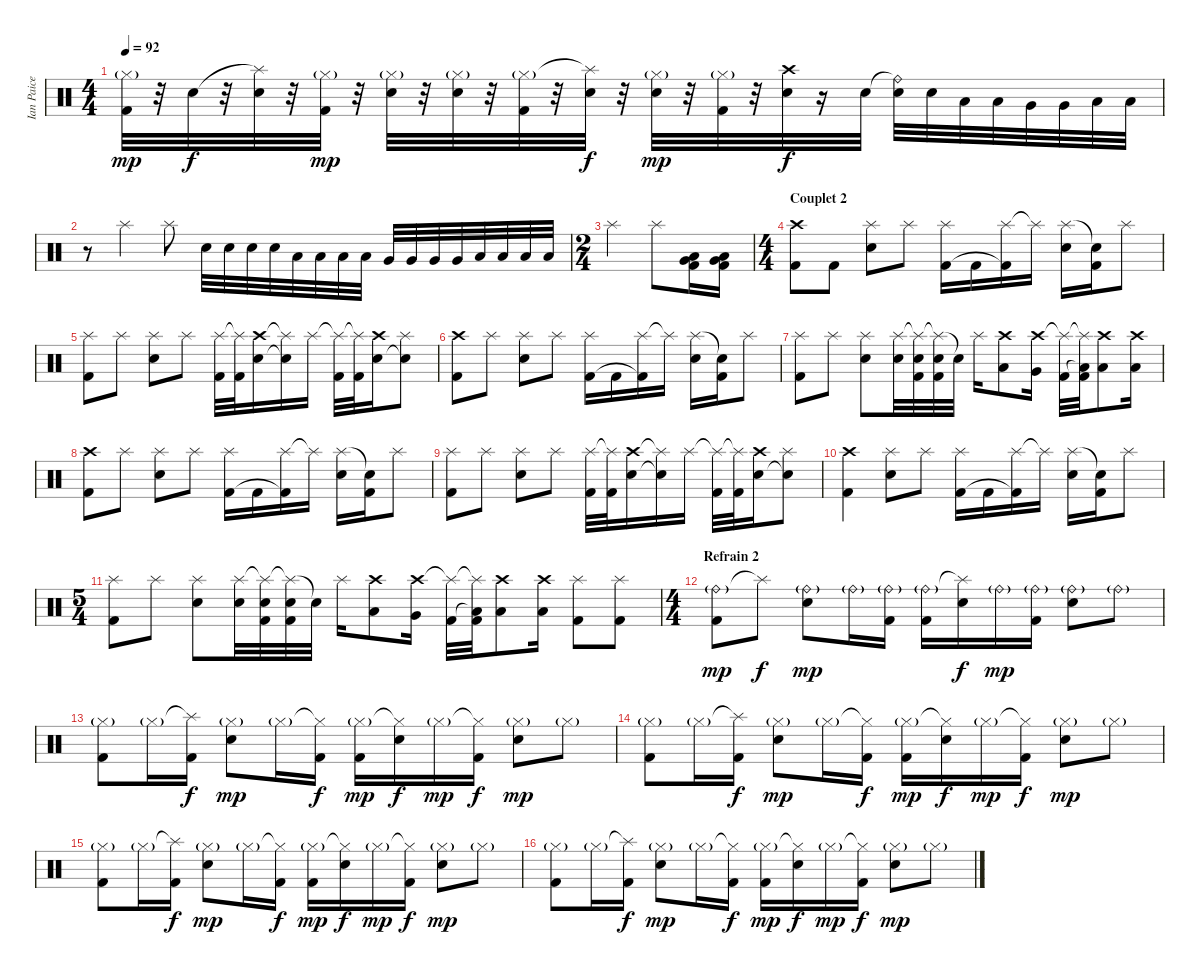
\track ("Ian Paice" "Ian Paice") {instrument percussion}
\staff {score}
\articulation defaults
\ts (4 4)
\tempo 92
\clef neutral
\ks c
("Hi-Hat (closed)"{g} "Kick (hit) 2").32{dy mp} r.32 "Snare (hit) 2".32{dy f} r.32 ("Splash (hit)"{t} "Snare (hit) 2").32 r.32 ("Hi-Hat (closed)"{g} "Kick (hit) 2").32{dy mp} r.32 ("Hi-Hat (closed)"{g} "Snare (hit) 2").32 r.32 ("Hi-Hat (closed)"{g} "Snare (hit) 2").32 r.32 ("Hi-Hat (closed)"{g} "Kick (hit) 2").32 r.32 ("Splash (hit)"{t} "Snare (hit) 2").32{dy f} r.32 ("Hi-Hat (closed)"{g} "Snare (hit) 2").32{dy mp} r.32 ("Hi-Hat (closed)"{g} "Kick (hit) 2").32 r.32 ("Crash high (hit)" "Snare (hit) 2").32{dy f} r.16 "Snare (hit) 2".32 ("Ride (bell)"{t} "Snare (hit) 2").32 "Snare (hit) 2".32 "Low Tom (hit)".32 "Low Tom (hit)".32 "Very Low Tom (hit)".32 "Very Low Tom (hit)".32 "Low Floor Tom (hit)".32 "Low Floor Tom (hit)".32 |
r.8 "Splash (hit)".4 "Splash (hit)".8 "Snare (hit) 2".32 "Snare (hit) 2".32 "Snare (hit) 2".32 "Snare (hit) 2".32 "Low Tom (hit)".32 "Low Tom (hit)".32 "Low Tom (hit)".32 "Low Tom (hit)".32 "Very Low Tom (hit)".32 "Very Low Tom (hit)".32 "Very Low Tom (hit)".32 "Very Low Tom (hit)".32 "Low Floor Tom (hit)".32 "Low Floor Tom (hit)".32 "Low Floor Tom (hit)".32 "Low Floor Tom (hit)".32 |
\ts (2 4)
"Splash (hit)".4 "Splash (hit)".8 ("Very Low Tom (hit)" "Low Tom (hit)" "Kick (hit) 2").16 ("Very Low Tom (hit)" "Low Tom (hit)" "Kick (hit) 2").16 |
\ts (4 4)
\section ("" "Couplet 2")
("Crash high (hit)" "Kick (hit) 2").8 "Kick (hit) 2".8 ("Splash (hit)" "Snare (hit) 2").8 "Splash (hit)".8 ("Splash (hit)" "Kick (hit) 2").16 "Kick (hit) 2".16 ("Splash (hit)" "Kick (hit) 2"{t}).16 "Splash (hit)"{t}.16 ("Splash (hit)" "Snare (hit) 2").16 ("Snare (hit)"{t} "Kick (hit) 2").16 "Splash (hit)".8 |
("Splash (hit)" "Kick (hit) 2").8 "Splash (hit)".8 ("Splash (hit)" "Snare (hit) 2").8 "Splash (hit)".8 ("Splash (hit)" "Kick (hit) 2").32 ("Splash (hit)"{t} "Kick (hit) 2").32 ("Crash high (hit)" "Snare (hit) 2").16 ("Splash (hit)"{t} "Snare (hit)"{t}).16 "Splash (hit)".16 ("Splash (hit)"{t} "Kick (hit) 2").32 ("Splash (hit)"{t} "Kick (hit) 2").32 ("Crash high (hit)" "Snare (hit) 2").16 ("Splash (hit)" "Snare (hit)"{t}).8 |
("Crash high (hit)" "Kick (hit) 2").8 "Splash (hit)".8 ("Splash (hit)" "Snare (hit) 2").8 "Splash (hit)".8 ("Splash (hit)" "Kick (hit) 2").16 "Kick (hit) 2".16 ("Splash (hit)" "Kick (hit) 2"{t}).16 "Splash (hit)"{t}.16 ("Splash (hit)" "Snare (hit) 2").16 ("Snare (hit)"{t} "Kick (hit) 2").16 "Splash (hit)".8 |
("Splash (hit)" "Kick (hit) 2").8 "Splash (hit)".8 ("Splash (hit)" "Snare (hit) 2").8 ("Splash (hit)" "Snare (hit) 2").32 ("Splash (hit)"{t} "Snare (hit) 2" "Kick (hit) 2").32 ("Splash (hit)"{t} "Snare (hit) 2" "Kick (hit) 2").32 "Snare (hit)"{t}.32 "Splash (hit)".16 ("Crash high (hit)" "Low Floor Tom (hit)").8 ("Crash high (hit)" "Very Low Tom (hit)").16 ("Splash (hit)"{t} "Kick (hit) 2").32 ("Splash (hit)"{t} "Low Tom (hit)"{t} "Kick (hit) 2").32 ("Crash high (hit)" "Low Tom (hit)").8 ("Crash high (hit)" "Low Tom (hit)").16 |
("Crash high (hit)" "Kick (hit) 2").8 "Splash (hit)".8 ("Splash (hit)" "Snare (hit) 2").8 "Splash (hit)".8 ("Splash (hit)" "Kick (hit) 2").16 "Kick (hit) 2".16 ("Splash (hit)" "Kick (hit) 2"{t}).16 "Splash (hit)"{t}.16 ("Splash (hit)" "Snare (hit) 2").16 ("Snare (hit)"{t} "Kick (hit) 2").16 "Splash (hit)".8 |
("Splash (hit)" "Kick (hit) 2").8 "Splash (hit)".8 ("Splash (hit)" "Snare (hit) 2").8 "Splash (hit)".8 ("Splash (hit)" "Kick (hit) 2").32 ("Splash (hit)"{t} "Kick (hit) 2").32 ("Crash high (hit)" "Snare (hit) 2").16 ("Splash (hit)"{t} "Snare (hit)"{t}).16 "Splash (hit)".16 ("Splash (hit)"{t} "Kick (hit) 2").32 ("Splash (hit)"{t} "Kick (hit) 2").32 ("Crash high (hit)" "Snare (hit) 2").16 ("Splash (hit)" "Snare (hit)"{t}).8 |
("Crash high (hit)" "Kick (hit) 2").4 ("Splash (hit)" "Snare (hit) 2").8 "Splash (hit)".8 ("Splash (hit)" "Kick (hit) 2").16 "Kick (hit) 2".16 ("Splash (hit)" "Kick (hit) 2"{t}).16 "Splash (hit)"{t}.16 ("Splash (hit)" "Snare (hit) 2").16 ("Snare (hit)"{t} "Kick (hit) 2").16 "Splash (hit)".8 |
\ts (5 4)
("Splash (hit)" "Kick (hit) 2").8 "Splash (hit)".8 ("Splash (hit)" "Snare (hit) 2").8 ("Splash (hit)" "Snare (hit) 2").32 ("Splash (hit)"{t} "Snare (hit) 2" "Kick (hit) 2").32 ("Splash (hit)"{t} "Snare (hit) 2" "Kick (hit) 2").32 "Snare (hit)"{t}.32 "Splash (hit)".16 ("Crash high (hit)" "Low Floor Tom (hit)").8 ("Crash high (hit)" "Very Low Tom (hit)").16 ("Splash (hit)"{t} "Kick (hit) 2").32 ("Splash (hit)"{t} "Low Tom (hit)"{t} "Kick (hit) 2").32 ("Crash high (hit)" "Low Tom (hit)").8 ("Crash high (hit)" "Low Tom (hit)").16 ("Splash (hit)" "Kick (hit) 2").8 ("Splash (hit)" "Kick (hit) 2").8 |
\ts (4 4)
\section ("" "Refrain 2")
("Ride (bell)"{g} "Kick (hit) 2").8{dy mp} "Splash (hit)"{t}.8{dy f} ("Ride (bell)"{g} "Snare (hit) 2").8{dy mp} "Ride (bell)"{g}.16 ("Ride (bell)"{g} "Kick (hit) 2").16 ("Ride (bell)"{g} "Kick (hit) 2").16 ("Splash (hit)"{t} "Snare (hit) 2").16{dy f} "Ride (bell)"{g}.16{dy mp} ("Ride (bell)"{g} "Kick (hit) 2").16 ("Ride (bell)"{g} "Snare (hit) 2").8 "Ride (bell)"{g}.8 |
("Hi-Hat (closed)"{g} "Kick (hit) 2").8 "Hi-Hat (closed)"{g}.16 ("Splash (hit)"{t} "Kick (hit) 2").16{dy f} ("Hi-Hat (closed)"{g} "Snare (hit) 2").8{dy mp} "Hi-Hat (closed)"{g}.16 ("Hi-Hat (closed)"{t} "Kick (hit) 2").16{dy f} ("Hi-Hat (closed)"{g} "Kick (hit) 2").16{dy mp} ("Hi-Hat (closed)"{t} "Snare (hit) 2").16{dy f} "Hi-Hat (closed)"{g}.16{dy mp} ("Hi-Hat (closed)"{t} "Kick (hit) 2").16{dy f} ("Hi-Hat (closed)"{g} "Snare (hit) 2").8{dy mp} "Hi-Hat (closed)"{g}.8 |
("Hi-Hat (closed)"{g} "Kick (hit) 2").8 "Hi-Hat (closed)"{g}.16 ("Splash (hit)"{t} "Kick (hit) 2").16{dy f} ("Hi-Hat (closed)"{g} "Snare (hit) 2").8{dy mp} "Hi-Hat (closed)"{g}.16 ("Hi-Hat (closed)"{t} "Kick (hit) 2").16{dy f} ("Hi-Hat (closed)"{g} "Kick (hit) 2").16{dy mp} ("Hi-Hat (closed)"{t} "Snare (hit) 2").16{dy f} "Hi-Hat (closed)"{g}.16{dy mp} ("Hi-Hat (closed)"{t} "Kick (hit) 2").16{dy f} ("Hi-Hat (closed)"{g} "Snare (hit) 2").8{dy mp} "Hi-Hat (closed)"{g}.8 |
("Hi-Hat (closed)"{g} "Kick (hit) 2").8 "Hi-Hat (closed)"{g}.16 ("Splash (hit)"{t} "Kick (hit) 2").16{dy f} ("Hi-Hat (closed)"{g} "Snare (hit) 2").8{dy mp} "Hi-Hat (closed)"{g}.16 ("Hi-Hat (closed)"{t} "Kick (hit) 2").16{dy f} ("Hi-Hat (closed)"{g} "Kick (hit) 2").16{dy mp} ("Hi-Hat (closed)"{t} "Snare (hit) 2").16{dy f} "Hi-Hat (closed)"{g}.16{dy mp} ("Hi-Hat (closed)"{t} "Kick (hit) 2").16{dy f} ("Hi-Hat (closed)"{g} "Snare (hit) 2").8{dy mp} "Hi-Hat (closed)"{g}.8 |
("Hi-Hat (closed)"{g} "Kick (hit) 2").8 "Hi-Hat (closed)"{g}.16 ("Splash (hit)"{t} "Kick (hit) 2").16{dy f} ("Hi-Hat (closed)"{g} "Snare (hit) 2").8{dy mp} "Hi-Hat (closed)"{g}.16 ("Hi-Hat (closed)"{t} "Kick (hit) 2").16{dy f} ("Hi-Hat (closed)"{g} "Kick (hit) 2").16{dy mp} ("Hi-Hat (closed)"{t} "Snare (hit) 2").16{dy f} "Hi-Hat (closed)"{g}.16{dy mp} ("Hi-Hat (closed)"{t} "Kick (hit) 2").16{dy f} ("Hi-Hat (closed)"{g} "Snare (hit) 2").8{dy mp} "Hi-Hat (closed)"{g}.8
